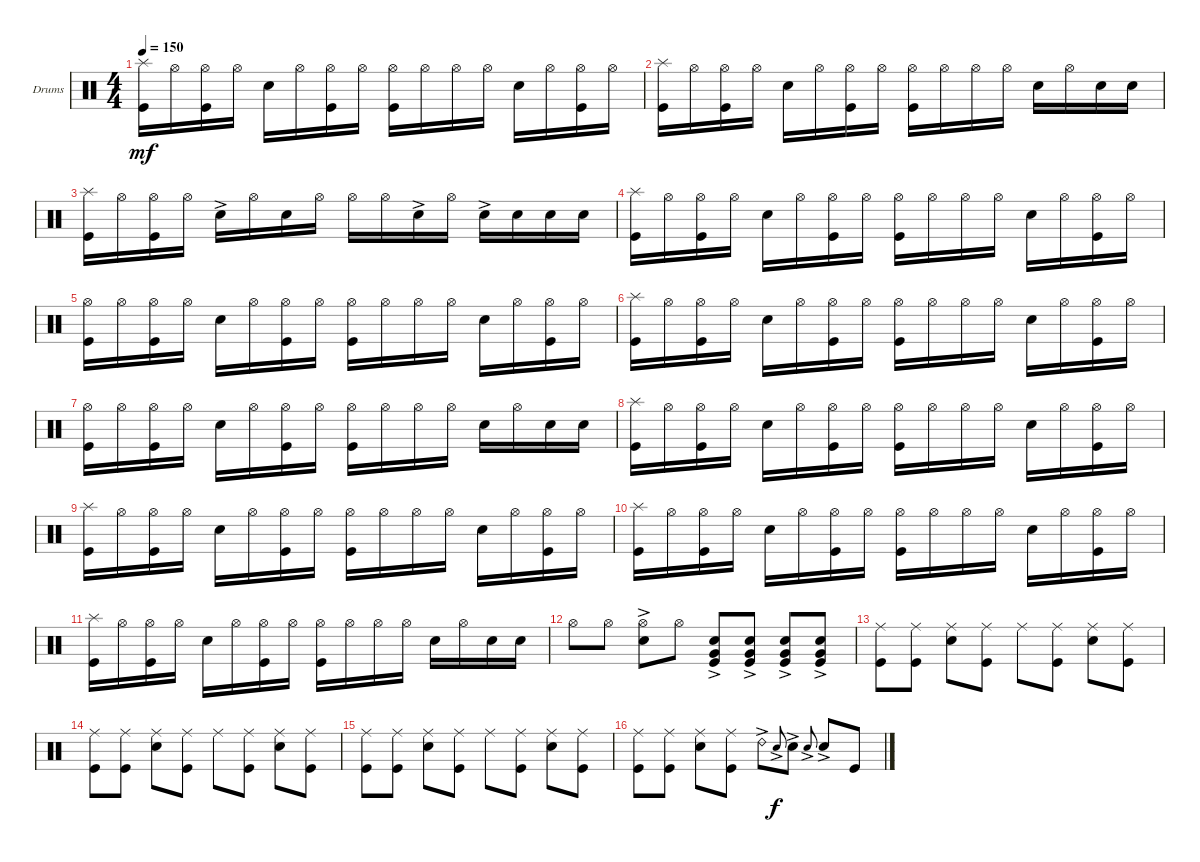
\bracketExtendMode groupsimilarinstruments
\firstSystemTrackNameOrientation horizontal
\otherSystemsTrackNameOrientation horizontal
\track ("Drumkit" "Drums") {instrument percussion}
\staff {score}
\articulation defaults
\ts (4 4)
\tempo 150
\clef neutral
\ks c
("Splash (hit)" "Kick (hit)").16{dy mf} "Hi-Hat (open)".16 ("Hi-Hat (open)" "Kick (hit)").16 "Hi-Hat (open)".16 "Snare (hit) 2".16 "Hi-Hat (open)".16 ("Hi-Hat (open)" "Kick (hit)").16 "Hi-Hat (open)".16 ("Hi-Hat (open)" "Kick (hit)").16 "Hi-Hat (open)".16 "Hi-Hat (open)".16 "Hi-Hat (open)".16 "Snare (hit) 2".16 "Hi-Hat (open)".16 ("Hi-Hat (open)" "Kick (hit)").16 "Hi-Hat (open)".16 |
("Kick (hit)" "Splash (hit)").16 "Hi-Hat (open)".16 ("Hi-Hat (open)" "Kick (hit)").16 "Hi-Hat (open)".16 "Snare (hit) 2".16 "Hi-Hat (open)".16 ("Hi-Hat (open)" "Kick (hit)").16 "Hi-Hat (open)".16 ("Hi-Hat (open)" "Kick (hit)").16 "Hi-Hat (open)".16 "Hi-Hat (open)".16 "Hi-Hat (open)".16 "Snare (hit) 2".16 "Hi-Hat (open)".16 "Snare (hit) 2".16 "Snare (hit) 2".16 |
("Splash (hit)" "Kick (hit)").16 "Hi-Hat (open)".16 ("Hi-Hat (open)" "Kick (hit)").16 "Hi-Hat (open)".16 "Snare (hit) 2"{ac}.16 "Hi-Hat (open)".16 "Snare (hit) 2".16 "Hi-Hat (open)".16 "Hi-Hat (open)".16 "Hi-Hat (open)".16 "Snare (hit) 2"{ac}.16 "Hi-Hat (open)".16 "Snare (hit) 2"{ac}.16 "Snare (hit) 2".16 "Snare (hit) 2".16 "Snare (hit) 2".16 |
("Splash (hit)" "Kick (hit)").16 "Hi-Hat (open)".16 ("Hi-Hat (open)" "Kick (hit)").16 "Hi-Hat (open)".16 "Snare (hit) 2".16 "Hi-Hat (open)".16 ("Hi-Hat (open)" "Kick (hit)").16 "Hi-Hat (open)".16 ("Hi-Hat (open)" "Kick (hit)").16 "Hi-Hat (open)".16 "Hi-Hat (open)".16 "Hi-Hat (open)".16 "Snare (hit) 2".16 "Hi-Hat (open)".16 ("Hi-Hat (open)" "Kick (hit)").16 "Hi-Hat (open)".16 |
("Hi-Hat (open)" "Kick (hit)").16 "Hi-Hat (open)".16 ("Hi-Hat (open)" "Kick (hit)").16 "Hi-Hat (open)".16 "Snare (hit) 2".16 "Hi-Hat (open)".16 ("Hi-Hat (open)" "Kick (hit)").16 "Hi-Hat (open)".16 ("Hi-Hat (open)" "Kick (hit)").16 "Hi-Hat (open)".16 "Hi-Hat (open)".16 "Hi-Hat (open)".16 "Snare (hit) 2".16 "Hi-Hat (open)".16 ("Hi-Hat (open)" "Kick (hit)").16 "Hi-Hat (open)".16 |
("Splash (hit)" "Kick (hit)").16 "Hi-Hat (open)".16 ("Hi-Hat (open)" "Kick (hit)").16 "Hi-Hat (open)".16 "Snare (hit) 2".16 "Hi-Hat (open)".16 ("Hi-Hat (open)" "Kick (hit)").16 "Hi-Hat (open)".16 ("Hi-Hat (open)" "Kick (hit)").16 "Hi-Hat (open)".16 "Hi-Hat (open)".16 "Hi-Hat (open)".16 "Snare (hit) 2".16 "Hi-Hat (open)".16 ("Hi-Hat (open)" "Kick (hit)").16 "Hi-Hat (open)".16 |
("Hi-Hat (open)" "Kick (hit)").16 "Hi-Hat (open)".16 ("Hi-Hat (open)" "Kick (hit)").16 "Hi-Hat (open)".16 "Snare (hit) 2".16 "Hi-Hat (open)".16 ("Hi-Hat (open)" "Kick (hit)").16 "Hi-Hat (open)".16 ("Hi-Hat (open)" "Kick (hit)").16 "Hi-Hat (open)".16 "Hi-Hat (open)".16 "Hi-Hat (open)".16 "Snare (hit) 2".16 "Hi-Hat (open)".16 "Snare (hit) 2".16 "Snare (hit) 2".16 |
("Splash (hit)" "Kick (hit)").16 "Hi-Hat (open)".16 ("Hi-Hat (open)" "Kick (hit)").16 "Hi-Hat (open)".16 "Snare (hit) 2".16 "Hi-Hat (open)".16 ("Hi-Hat (open)" "Kick (hit)").16 "Hi-Hat (open)".16 ("Hi-Hat (open)" "Kick (hit)").16 "Hi-Hat (open)".16 "Hi-Hat (open)".16 "Hi-Hat (open)".16 "Snare (hit) 2".16 "Hi-Hat (open)".16 ("Hi-Hat (open)" "Kick (hit)").16 "Hi-Hat (open)".16 |
("Kick (hit)" "Splash (hit)").16 "Hi-Hat (open)".16 ("Hi-Hat (open)" "Kick (hit)").16 "Hi-Hat (open)".16 "Snare (hit) 2".16 "Hi-Hat (open)".16 ("Hi-Hat (open)" "Kick (hit)").16 "Hi-Hat (open)".16 ("Hi-Hat (open)" "Kick (hit)").16 "Hi-Hat (open)".16 "Hi-Hat (open)".16 "Hi-Hat (open)".16 "Snare (hit) 2".16 "Hi-Hat (open)".16 ("Hi-Hat (open)" "Kick (hit)").16 "Hi-Hat (open)".16 |
("Splash (hit)" "Kick (hit)").16 "Hi-Hat (open)".16 ("Hi-Hat (open)" "Kick (hit)").16 "Hi-Hat (open)".16 "Snare (hit) 2".16 "Hi-Hat (open)".16 ("Hi-Hat (open)" "Kick (hit)").16 "Hi-Hat (open)".16 ("Hi-Hat (open)" "Kick (hit)").16 "Hi-Hat (open)".16 "Hi-Hat (open)".16 "Hi-Hat (open)".16 "Snare (hit) 2".16 "Hi-Hat (open)".16 ("Hi-Hat (open)" "Kick (hit)").16 "Hi-Hat (open)".16 |
("Kick (hit)" "Splash (hit)").16 "Hi-Hat (open)".16 ("Hi-Hat (open)" "Kick (hit)").16 "Hi-Hat (open)".16 "Snare (hit) 2".16 "Hi-Hat (open)".16 ("Hi-Hat (open)" "Kick (hit)").16 "Hi-Hat (open)".16 ("Hi-Hat (open)" "Kick (hit)").16 "Hi-Hat (open)".16 "Hi-Hat (open)".16 "Hi-Hat (open)".16 "Snare (hit) 2".16 "Hi-Hat (open)".16 "Snare (hit) 2".16 "Snare (hit) 2".16 |
"Hi-Hat (open)".8 "Hi-Hat (open)".8 ("Hi-Hat (open)" "Snare (hit) 2"{ac}).8 "Hi-Hat (open)".8 ("Snare (hit) 2"{ac} "Very Low Tom (hit)"{ac} "Kick (hit)").8 ("Snare (hit) 2"{ac} "Very Low Tom (hit)"{ac} "Kick (hit)").8 ("Snare (hit) 2"{ac} "Very Low Tom (hit)"{ac} "Kick (hit)").8 ("Snare (hit) 2"{ac} "Very Low Tom (hit)"{ac} "Kick (hit)").8 |
("Kick (hit)" "Ride (middle)").8 ("Kick (hit)" "Ride (middle)").8 ("Snare (hit) 2" "Ride (middle)").8 ("Kick (hit)" "Ride (middle)").8 "Ride (middle)".8 ("Kick (hit)" "Ride (middle)").8 ("Snare (hit) 2" "Ride (middle)").8 ("Kick (hit)" "Ride (middle)").8 |
("Kick (hit)" "Ride (middle)").8 ("Kick (hit)" "Ride (middle)").8 ("Snare (hit) 2" "Ride (middle)").8 ("Kick (hit)" "Ride (middle)").8 "Ride (middle)".8 ("Kick (hit)" "Ride (middle)").8 ("Snare (hit) 2" "Ride (middle)").8 ("Kick (hit)" "Ride (middle)").8 |
("Kick (hit)" "Ride (middle)").8 ("Kick (hit)" "Ride (middle)").8 ("Snare (hit) 2" "Ride (middle)").8 ("Kick (hit)" "Ride (middle)").8 "Ride (middle)".8 ("Kick (hit)" "Ride (middle)").8 ("Snare (hit) 2" "Ride (middle)").8 ("Kick (hit)" "Ride (middle)").8 |
("Kick (hit)" "Ride (middle)").8 ("Kick (hit)" "Ride (middle)").8 ("Snare (hit) 2" "Ride (middle)").8 ("Kick (hit)" "Ride (middle)").8 "Ride (bell) 2"{ac}.8 "Snare (hit) 2"{ac}.8{gr onbeat dy f} "Snare (hit) 2"{ac}.8 "Snare (hit) 2"{ac}.8{gr onbeat} "Snare (hit) 2"{ac}.8 "Kick (hit)".8
